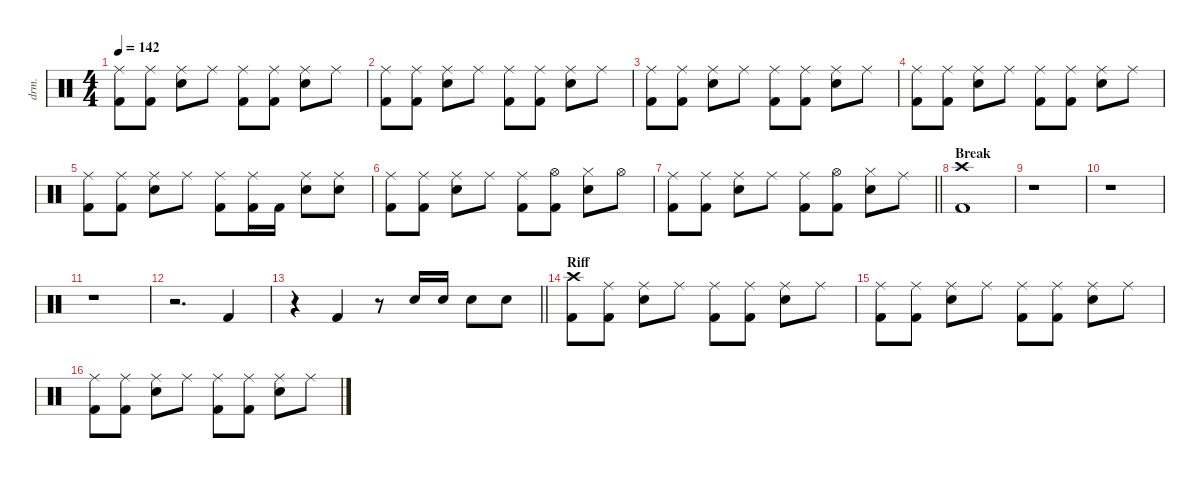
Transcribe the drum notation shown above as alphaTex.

\defaultSystemsLayout 4
\hideDynamics
\bracketExtendMode nobrackets
\otherSystemsTrackNameOrientation horizontal
\track ("Drums" "drm.") {defaultSystemsLayout 4 instrument percussion}
\staff {score}
\articulation defaults
\ts (4 4)
\tempo 142
\clef neutral
\ks c
("Ride (middle)" "Kick (hit) 2").8{dy f beam Down} ("Ride (middle)" "Kick (hit) 2").8{beam Down} ("Ride (middle)" "Snare (hit) 2").8{beam Down} "Ride (middle)".8{beam Down} ("Ride (middle)" "Kick (hit) 2").8{beam Down} ("Ride (middle)" "Kick (hit) 2").8{beam Down} ("Ride (middle)" "Snare (hit) 2").8{beam Down} "Ride (middle)".8{beam Down} |
("Ride (middle)" "Kick (hit) 2").8{beam Down} ("Ride (middle)" "Kick (hit) 2").8{beam Down} ("Ride (middle)" "Snare (hit) 2").8{beam Down} "Ride (middle)".8{beam Down} ("Ride (middle)" "Kick (hit) 2").8{beam Down} ("Ride (middle)" "Kick (hit) 2").8{beam Down} ("Ride (middle)" "Snare (hit) 2").8{beam Down} "Ride (middle)".8{beam Down} |
("Ride (middle)" "Kick (hit) 2").8{beam Down} ("Ride (middle)" "Kick (hit) 2").8{beam Down} ("Ride (middle)" "Snare (hit) 2").8{beam Down} "Ride (middle)".8{beam Down} ("Ride (middle)" "Kick (hit) 2").8{beam Down} ("Ride (middle)" "Kick (hit) 2").8{beam Down} ("Ride (middle)" "Snare (hit) 2").8{beam Down} "Ride (middle)".8{beam Down} |
("Ride (middle)" "Kick (hit) 2").8{beam Down} ("Ride (middle)" "Kick (hit) 2").8{beam Down} ("Ride (middle)" "Snare (hit) 2").8{beam Down} "Ride (middle)".8{beam Down} ("Ride (middle)" "Kick (hit) 2").8{beam Down} ("Ride (middle)" "Kick (hit) 2").8{beam Down} ("Ride (middle)" "Snare (hit) 2").8{beam Down} "Ride (middle)".8{beam Down} |
("Ride (middle)" "Kick (hit) 2").8{beam Down} ("Ride (middle)" "Kick (hit) 2").8{beam Down} ("Ride (middle)" "Snare (hit) 2").8{beam Down} "Ride (middle)".8{beam Down} ("Ride (middle)" "Kick (hit) 2").8{beam Down} ("Ride (middle)" "Kick (hit) 2").16{beam Down} "Kick (hit) 2".16{beam Down} ("Ride (middle)" "Snare (hit) 2").8{beam Down} ("Ride (middle)" "Snare (hit) 2").8{beam Down} |
("Ride (middle)" "Kick (hit) 2").8{beam Down} ("Ride (middle)" "Kick (hit) 2").8{beam Down} ("Ride (middle)" "Snare (hit) 2").8{beam Down} "Ride (middle)".8{beam Down} ("Ride (middle)" "Kick (hit) 2").8{beam Down} ("Hi-Hat (open)" "Kick (hit) 2").8{beam Down} ("Hi-Hat (closed)" "Snare (hit) 2").8{beam Down} "Hi-Hat (open)".8{beam Down} |
\barLineRight lightlight
("Ride (middle)" "Kick (hit) 2").8{beam Down} ("Ride (middle)" "Kick (hit) 2").8{beam Down} ("Ride (middle)" "Snare (hit) 2").8{beam Down} "Ride (middle)".8{beam Down} ("Ride (middle)" "Kick (hit) 2").8{beam Down} ("Hi-Hat (open)" "Kick (hit) 2").8{beam Down} ("Hi-Hat (closed)" "Snare (hit) 2").8{beam Down} "Ride (middle)".8{beam Down} |
\section ("" "Break")
("Crash high (hit)" "Kick (hit) 2").1{beam Down} |
r.1{beam Down} |
r.1{beam Down} |
r.1{beam Down} |
r.2{d beam Down} "Kick (hit) 2".4{beam Up} |
\barLineRight lightlight
r.4{beam Down} "Kick (hit) 2".4{beam Up} r.8{beam Up} "Snare (hit) 2".16{beam Down} "Snare (hit) 2".16{beam Down} "Snare (hit) 2".8{beam Down} "Snare (hit) 2".8{beam Down} |
\section ("" "Riff")
("Crash high (hit)" "Kick (hit) 2").8{beam Down} ("Ride (middle)" "Kick (hit) 2").8{beam Down} ("Ride (middle)" "Snare (hit) 2").8{beam Down} "Ride (middle)".8{beam Down} ("Ride (middle)" "Kick (hit) 2").8{beam Down} ("Ride (middle)" "Kick (hit) 2").8{beam Down} ("Ride (middle)" "Snare (hit) 2").8{beam Down} "Ride (middle)".8{beam Down} |
("Ride (middle)" "Kick (hit) 2").8{beam Down} ("Ride (middle)" "Kick (hit) 2").8{beam Down} ("Ride (middle)" "Snare (hit) 2").8{beam Down} "Ride (middle)".8{beam Down} ("Ride (middle)" "Kick (hit) 2").8{beam Down} ("Ride (middle)" "Kick (hit) 2").8{beam Down} ("Ride (middle)" "Snare (hit) 2").8{beam Down} "Ride (middle)".8{beam Down} |
("Ride (middle)" "Kick (hit) 2").8{beam Down} ("Ride (middle)" "Kick (hit) 2").8{beam Down} ("Ride (middle)" "Snare (hit) 2").8{beam Down} "Ride (middle)".8{beam Down} ("Ride (middle)" "Kick (hit) 2").8{beam Down} ("Ride (middle)" "Kick (hit) 2").8{beam Down} ("Ride (middle)" "Snare (hit) 2").8{beam Down} "Ride (middle)".8{beam Down}
